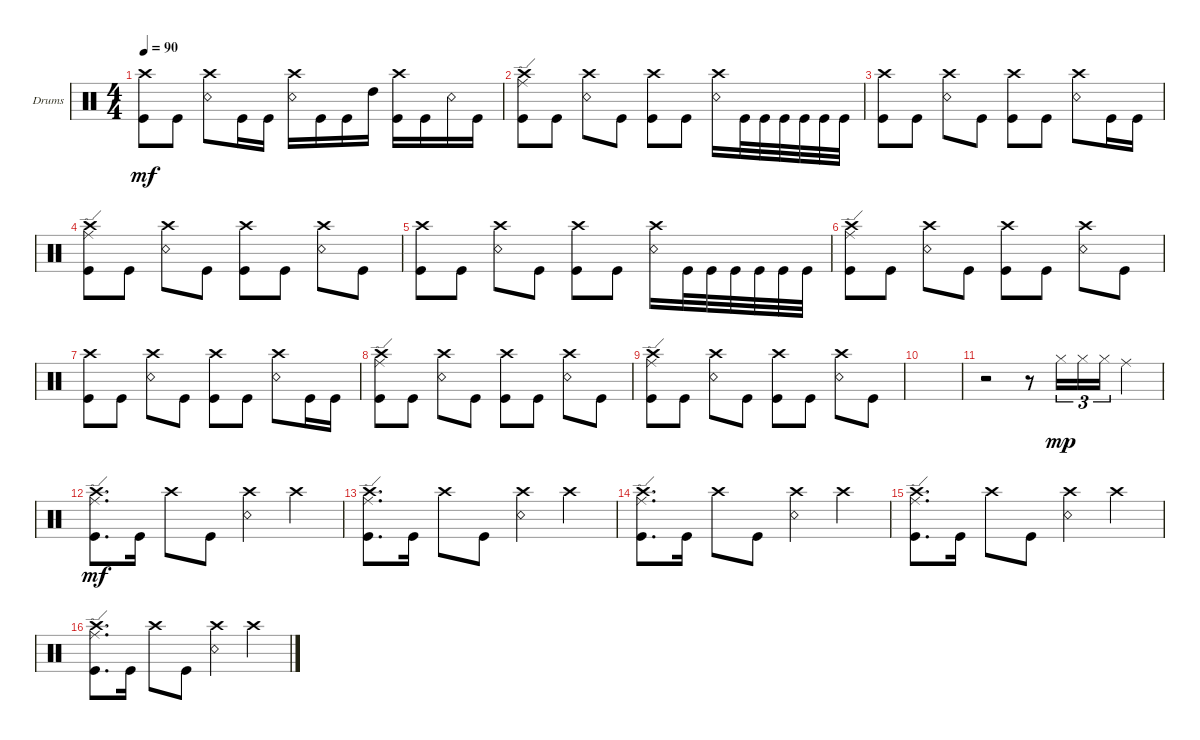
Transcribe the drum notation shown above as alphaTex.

\defaultSystemsLayout 4
\bracketExtendMode groupsimilarinstruments
\firstSystemTrackNameOrientation horizontal
\otherSystemsTrackNameOrientation horizontal
\track ("Drumkit" "Drums") {instrument percussion}
\staff {score}
\articulation defaults
\ts (4 4)
\tempo 90
\clef neutral
\ks c
("Kick (hit)" "Crash high (hit)").8{dy mf} "Kick (hit)".8 ("Snare (rim shot)" "Crash high (hit)").8 "Kick (hit)".16 "Kick (hit)".16 ("Snare (rim shot)" "Crash high (hit)").16 "Kick (hit)".16 "Kick (hit)".16 "High Tom (hit)".16 ("Kick (hit)" "Crash high (hit)").16 "Kick (hit)".16 "Snare (rim shot)".16 "Kick (hit)".16 |
("Kick (hit)" "Ride (edge)" "Crash high (hit)").8 "Kick (hit)".8 ("Snare (rim shot)" "Crash high (hit)").8 "Kick (hit)".8 ("Kick (hit)" "Crash high (hit)").8 "Kick (hit)".8 ("Snare (rim shot)" "Crash high (hit)").16 "Kick (hit)".32 "Kick (hit)".32 "Kick (hit)".32 "Kick (hit)".32 "Kick (hit)".32 "Kick (hit)".32 |
("Kick (hit)" "Crash high (hit)").8 "Kick (hit)".8 ("Snare (rim shot)" "Crash high (hit)").8 "Kick (hit)".8 ("Kick (hit)" "Crash high (hit)").8 "Kick (hit)".8 ("Snare (rim shot)" "Crash high (hit)").8 "Kick (hit)".16 "Kick (hit)".16 |
("Kick (hit)" "Ride (edge)" "Crash high (hit)").8 "Kick (hit)".8 ("Snare (rim shot)" "Crash high (hit)").8 "Kick (hit)".8 ("Kick (hit)" "Crash high (hit)").8 "Kick (hit)".8 ("Snare (rim shot)" "Crash high (hit)").8 "Kick (hit)".8 |
("Kick (hit)" "Crash high (hit)").8 "Kick (hit)".8 ("Snare (rim shot)" "Crash high (hit)").8 "Kick (hit)".8 ("Kick (hit)" "Crash high (hit)").8 "Kick (hit)".8 ("Snare (rim shot)" "Crash high (hit)").16 "Kick (hit)".32 "Kick (hit)".32 "Kick (hit)".32 "Kick (hit)".32 "Kick (hit)".32 "Kick (hit)".32 |
("Kick (hit)" "Ride (edge)" "Crash high (hit)").8 "Kick (hit)".8 ("Snare (rim shot)" "Crash high (hit)").8 "Kick (hit)".8 ("Kick (hit)" "Crash high (hit)").8 "Kick (hit)".8 ("Snare (rim shot)" "Crash high (hit)").8 "Kick (hit)".8 |
("Kick (hit)" "Crash high (hit)").8 "Kick (hit)".8 ("Snare (rim shot)" "Crash high (hit)").8 "Kick (hit)".8 ("Kick (hit)" "Crash high (hit)").8 "Kick (hit)".8 ("Snare (rim shot)" "Crash high (hit)").8 "Kick (hit)".16 "Kick (hit)".16 |
("Kick (hit)" "Ride (edge)" "Crash high (hit)").8 "Kick (hit)".8 ("Snare (rim shot)" "Crash high (hit)").8 "Kick (hit)".8 ("Kick (hit)" "Crash high (hit)").8 "Kick (hit)".8 ("Snare (rim shot)" "Crash high (hit)").8 "Kick (hit)".8 |
("Kick (hit)" "Ride (edge)" "Crash high (hit)").8 "Kick (hit)".8 ("Snare (rim shot)" "Crash high (hit)").8 "Kick (hit)".8 ("Kick (hit)" "Crash high (hit)").8 "Kick (hit)".8 ("Snare (rim shot)" "Crash high (hit)").8 "Kick (hit)".8 |
|
r.2 r.8 "Hi-Hat (closed)".16{tu (3 2) dy mp} "Hi-Hat (closed)".16{tu (3 2)} "Hi-Hat (closed)".16{tu (3 2)} "Ride (middle)".4 |
("Crash high (hit)" "Ride (edge)" "Kick (hit)").8{d dy mf} "Kick (hit)".16 "Crash high (hit)".8 "Kick (hit)".8 ("Snare (rim shot)" "Crash high (hit)").4 "Crash high (hit)".4 |
("Crash high (hit)" "Ride (edge)" "Kick (hit)").8{d} "Kick (hit)".16 "Crash high (hit)".8 "Kick (hit)".8 ("Snare (rim shot)" "Crash high (hit)").4 "Crash high (hit)".4 |
("Crash high (hit)" "Ride (edge)" "Kick (hit)").8{d} "Kick (hit)".16 "Crash high (hit)".8 "Kick (hit)".8 ("Snare (rim shot)" "Crash high (hit)").4 "Crash high (hit)".4 |
("Crash high (hit)" "Ride (edge)" "Kick (hit)").8{d} "Kick (hit)".16 "Crash high (hit)".8 "Kick (hit)".8 ("Snare (rim shot)" "Crash high (hit)").4 "Crash high (hit)".4 |
("Crash high (hit)" "Ride (edge)" "Kick (hit)").8{d} "Kick (hit)".16 "Crash high (hit)".8 "Kick (hit)".8 ("Snare (rim shot)" "Crash high (hit)").4 "Crash high (hit)".4
